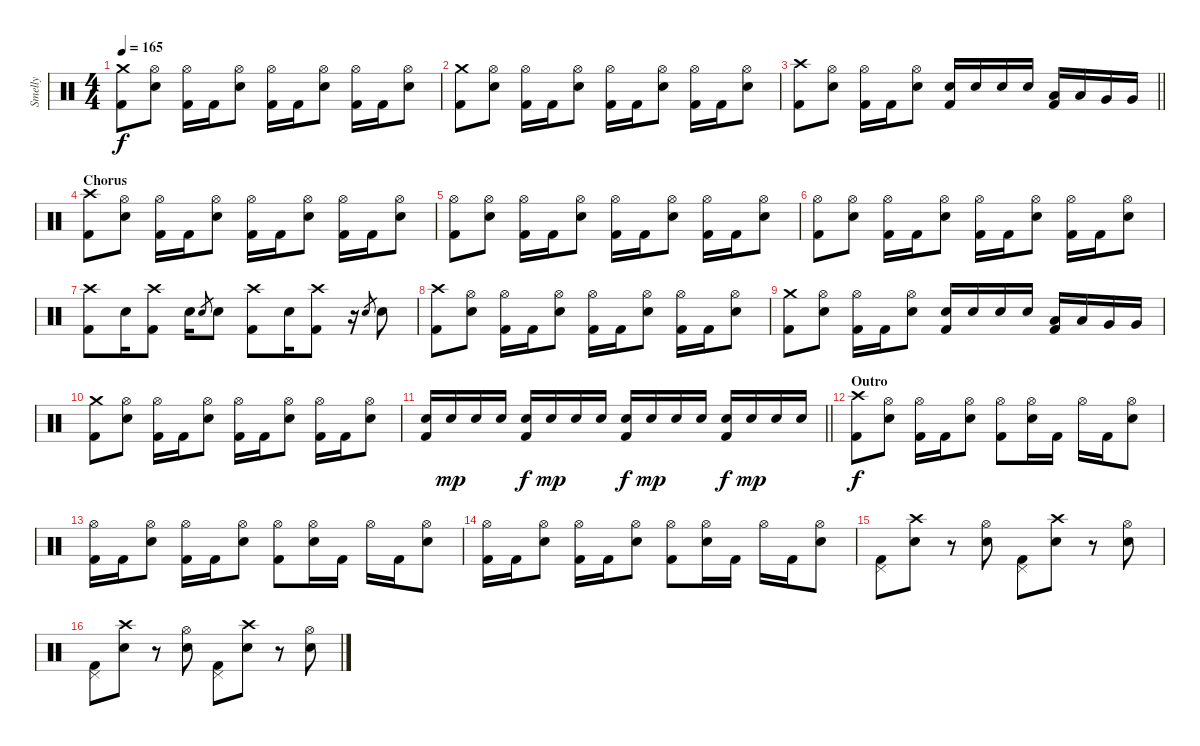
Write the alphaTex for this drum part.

\track ("Smelly" "Smelly") {instrument percussion}
\staff {score}
\articulation defaults
\ts (4 4)
\tempo 165
\clef neutral
\ks c
("Crash medium (hit)" "Kick (hit) 2").8{dy f} ("Hi-Hat (open)" "Electric Snare (hit)").8 ("Hi-Hat (open)" "Kick (hit) 2").16 "Kick (hit) 2".16 ("Hi-Hat (open)" "Electric Snare (hit)").8 ("Hi-Hat (open)" "Kick (hit) 2").16 "Kick (hit) 2".16 ("Hi-Hat (open)" "Electric Snare (hit)").8 ("Hi-Hat (open)" "Kick (hit) 2").16 "Kick (hit) 2".16 ("Hi-Hat (open)" "Electric Snare (hit)").8 |
("Crash medium (hit)" "Kick (hit) 2").8 ("Hi-Hat (open)" "Electric Snare (hit)").8 ("Hi-Hat (open)" "Kick (hit) 2").16 "Kick (hit) 2".16 ("Hi-Hat (open)" "Electric Snare (hit)").8 ("Hi-Hat (open)" "Kick (hit) 2").16 "Kick (hit) 2".16 ("Hi-Hat (open)" "Electric Snare (hit)").8 ("Hi-Hat (open)" "Kick (hit) 2").16 "Kick (hit) 2".16 ("Hi-Hat (open)" "Electric Snare (hit)").8 |
\barLineRight lightlight
("Crash high (hit)" "Kick (hit) 2").8 ("Hi-Hat (open)" "Electric Snare (hit)").8 ("Hi-Hat (open)" "Kick (hit) 2").16 "Kick (hit) 2".16 ("Hi-Hat (open)" "Electric Snare (hit)").8 ("Electric Snare (hit)" "Kick (hit) 2").16 "Electric Snare (hit)".16 "Electric Snare (hit)".16 "Electric Snare (hit)".16 ("Low Tom (hit)" "Kick (hit) 2").16 "Low Tom (hit)".16 "Very Low Tom (hit)".16 "Very Low Tom (hit)".16 |
\section ("" "Chorus")
("Crash high (hit)" "Kick (hit) 2").8 ("Hi-Hat (open)" "Electric Snare (hit)").8 ("Hi-Hat (open)" "Kick (hit) 2").16 "Kick (hit) 2".16 ("Hi-Hat (open)" "Electric Snare (hit)").8 ("Hi-Hat (open)" "Kick (hit) 2").16 "Kick (hit) 2".16 ("Hi-Hat (open)" "Electric Snare (hit)").8 ("Hi-Hat (open)" "Kick (hit) 2").16 "Kick (hit) 2".16 ("Hi-Hat (open)" "Electric Snare (hit)").8 |
("Hi-Hat (open)" "Kick (hit) 2").8 ("Hi-Hat (open)" "Electric Snare (hit)").8 ("Hi-Hat (open)" "Kick (hit) 2").16 "Kick (hit) 2".16 ("Hi-Hat (open)" "Electric Snare (hit)").8 ("Hi-Hat (open)" "Kick (hit) 2").16 "Kick (hit) 2".16 ("Hi-Hat (open)" "Electric Snare (hit)").8 ("Hi-Hat (open)" "Kick (hit) 2").16 "Kick (hit) 2".16 ("Hi-Hat (open)" "Electric Snare (hit)").8 |
("Hi-Hat (open)" "Kick (hit) 2").8 ("Hi-Hat (open)" "Electric Snare (hit)").8 ("Hi-Hat (open)" "Kick (hit) 2").16 "Kick (hit) 2".16 ("Hi-Hat (open)" "Electric Snare (hit)").8 ("Hi-Hat (open)" "Kick (hit) 2").16 "Kick (hit) 2".16 ("Hi-Hat (open)" "Electric Snare (hit)").8 ("Hi-Hat (open)" "Kick (hit) 2").16 "Kick (hit) 2".16 ("Hi-Hat (open)" "Electric Snare (hit)").8 |
("Crash high (hit)" "Kick (hit) 2").8 "Electric Snare (hit)".16 ("Crash high (hit)" "Kick (hit) 2").8 "Electric Snare (hit)".16 "Electric Snare (hit)".8{gr} "Electric Snare (hit)".8 ("Crash high (hit)" "Kick (hit) 2").8 "Electric Snare (hit)".16 ("Crash high (hit)" "Kick (hit) 2").8 r.16 "Electric Snare (hit)".8{gr} "Electric Snare (hit)".8 |
("Crash high (hit)" "Kick (hit) 2").8 ("Hi-Hat (open)" "Electric Snare (hit)").8 ("Hi-Hat (open)" "Kick (hit) 2").16 "Kick (hit) 2".16 ("Hi-Hat (open)" "Electric Snare (hit)").8 ("Hi-Hat (open)" "Kick (hit) 2").16 "Kick (hit) 2".16 ("Hi-Hat (open)" "Electric Snare (hit)").8 ("Hi-Hat (open)" "Kick (hit) 2").16 "Kick (hit) 2".16 ("Hi-Hat (open)" "Electric Snare (hit)").8 |
("Crash medium (hit)" "Kick (hit) 2").8 ("Hi-Hat (open)" "Electric Snare (hit)").8 ("Hi-Hat (open)" "Kick (hit) 2").16 "Kick (hit) 2".16 ("Hi-Hat (open)" "Electric Snare (hit)").8 ("Electric Snare (hit)" "Kick (hit) 2").16 "Electric Snare (hit)".16 "Electric Snare (hit)".16 "Electric Snare (hit)".16 ("Low Tom (hit)" "Kick (hit) 2").16 "Low Tom (hit)".16 "Very Low Tom (hit)".16 "Very Low Tom (hit)".16 |
("Crash medium (hit)" "Kick (hit) 2").8 ("Hi-Hat (open)" "Electric Snare (hit)").8 ("Hi-Hat (open)" "Kick (hit) 2").16 "Kick (hit) 2".16 ("Hi-Hat (open)" "Electric Snare (hit)").8 ("Hi-Hat (open)" "Kick (hit) 2").16 "Kick (hit) 2".16 ("Hi-Hat (open)" "Electric Snare (hit)").8 ("Hi-Hat (open)" "Kick (hit) 2").16 "Kick (hit) 2".16 ("Hi-Hat (open)" "Electric Snare (hit)").8 |
\barLineRight lightlight
("Electric Snare (hit)" "Kick (hit) 2").16 "Electric Snare (hit)".16{dy mp} "Electric Snare (hit)".16 "Electric Snare (hit)".16 ("Electric Snare (hit)" "Kick (hit) 2").16{dy f} "Electric Snare (hit)".16{dy mp} "Electric Snare (hit)".16 "Electric Snare (hit)".16 ("Electric Snare (hit)" "Kick (hit) 2").16{dy f} "Electric Snare (hit)".16{dy mp} "Electric Snare (hit)".16 "Electric Snare (hit)".16 ("Electric Snare (hit)" "Kick (hit) 2").16{dy f} "Electric Snare (hit)".16{dy mp} "Electric Snare (hit)".16 "Electric Snare (hit)".16 |
\section ("" "Outro")
("Crash high (hit)" "Kick (hit) 2").8{dy f} ("Hi-Hat (open)" "Electric Snare (hit)").8 ("Hi-Hat (open)" "Kick (hit) 2").16 "Kick (hit) 2".16 ("Hi-Hat (open)" "Electric Snare (hit)").8 ("Hi-Hat (open)" "Kick (hit) 2").8 ("Hi-Hat (open)" "Electric Snare (hit)").16 "Kick (hit) 2".16 "Hi-Hat (open)".16 "Kick (hit) 2".16 ("Hi-Hat (open)" "Electric Snare (hit)").8 |
("Hi-Hat (open)" "Kick (hit) 2").16 "Kick (hit) 2".16 ("Hi-Hat (open)" "Electric Snare (hit)").8 ("Hi-Hat (open)" "Kick (hit) 2").16 "Kick (hit) 2".16 ("Hi-Hat (open)" "Electric Snare (hit)").8 ("Hi-Hat (open)" "Kick (hit) 2").8 ("Hi-Hat (open)" "Electric Snare (hit)").16 "Kick (hit) 2".16 "Hi-Hat (open)".16 "Kick (hit) 2".16 ("Hi-Hat (open)" "Electric Snare (hit)").8 |
("Hi-Hat (open)" "Kick (hit) 2").16 "Kick (hit) 2".16 ("Hi-Hat (open)" "Electric Snare (hit)").8 ("Hi-Hat (open)" "Kick (hit) 2").16 "Kick (hit) 2".16 ("Hi-Hat (open)" "Electric Snare (hit)").8 ("Hi-Hat (open)" "Kick (hit) 2").8 ("Hi-Hat (open)" "Electric Snare (hit)").16 "Kick (hit) 2".16 "Hi-Hat (open)".16 "Kick (hit) 2".16 ("Hi-Hat (open)" "Electric Snare (hit)").8 |
("Pedal Hi-Hat (hit)" "Kick (hit) 2").8 ("Crash high (hit)" "Electric Snare (hit)").8 r.8 ("Hi-Hat (open)" "Electric Snare (hit)").8 ("Pedal Hi-Hat (hit)" "Kick (hit) 2").8 ("Crash high (hit)" "Electric Snare (hit)").8 r.8 ("Hi-Hat (open)" "Electric Snare (hit)").8 |
("Pedal Hi-Hat (hit)" "Kick (hit) 2").8 ("Crash high (hit)" "Electric Snare (hit)").8 r.8 ("Hi-Hat (open)" "Electric Snare (hit)").8 ("Pedal Hi-Hat (hit)" "Kick (hit) 2").8 ("Crash high (hit)" "Electric Snare (hit)").8 r.8 ("Hi-Hat (open)" "Electric Snare (hit)").8
